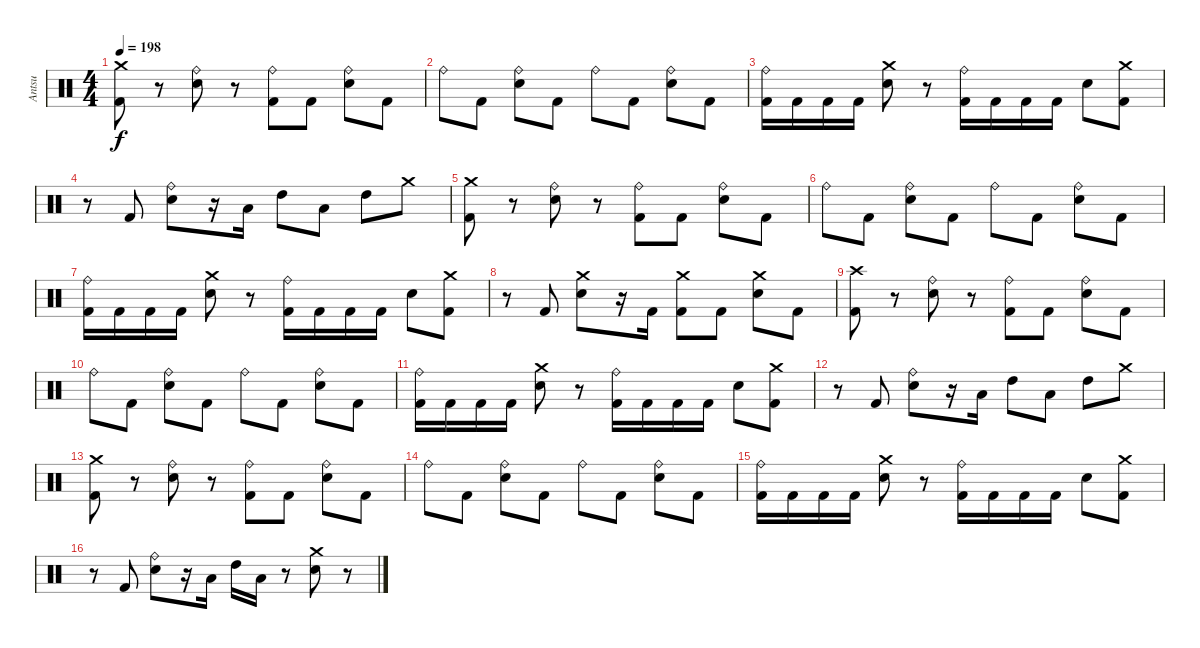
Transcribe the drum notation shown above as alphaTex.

\track ("Antsu" "Antsu") {instrument percussion}
\staff {score}
\articulation defaults
\ts (4 4)
\tempo 198
\clef neutral
\ks c
("Crash medium (hit)" "Kick (hit) 2").8{dy f} r.8 ("Ride (bell)" "Snare (hit) 2").8 r.8 ("Ride (bell)" "Kick (hit) 2").8 "Kick (hit) 2".8 ("Ride (bell)" "Snare (hit) 2").8 "Kick (hit) 2".8 |
"Ride (bell)".8 "Kick (hit) 2".8 ("Ride (bell)" "Snare (hit) 2").8 "Kick (hit) 2".8 "Ride (bell)".8 "Kick (hit) 2".8 ("Ride (bell)" "Snare (hit) 2").8 "Kick (hit) 2".8 |
("Ride (bell)" "Kick (hit) 2").16 "Kick (hit) 2".16 "Kick (hit) 2".16 "Kick (hit) 2".16 ("Crash medium (hit)" "Snare (hit) 2").8 r.8 ("Ride (bell)" "Kick (hit) 2").16 "Kick (hit) 2".16 "Kick (hit) 2".16 "Kick (hit) 2".16 "Snare (hit) 2".8 ("Crash medium (hit)" "Kick (hit) 2").8 |
r.8 "Kick (hit) 2".8 ("Ride (bell)" "Snare (hit) 2").8 r.16 "Low Tom (hit)".16 "High Tom (hit)".8 "Low Tom (hit)".8 "High Tom (hit)".8 "Crash medium (hit)".8 |
("Crash medium (hit)" "Kick (hit) 2").8 r.8 ("Ride (bell)" "Snare (hit) 2").8 r.8 ("Ride (bell)" "Kick (hit) 2").8 "Kick (hit) 2".8 ("Ride (bell)" "Snare (hit) 2").8 "Kick (hit) 2".8 |
"Ride (bell)".8 "Kick (hit) 2".8 ("Ride (bell)" "Snare (hit) 2").8 "Kick (hit) 2".8 "Ride (bell)".8 "Kick (hit) 2".8 ("Ride (bell)" "Snare (hit) 2").8 "Kick (hit) 2".8 |
("Ride (bell)" "Kick (hit) 2").16 "Kick (hit) 2".16 "Kick (hit) 2".16 "Kick (hit) 2".16 ("Crash medium (hit)" "Snare (hit) 2").8 r.8 ("Ride (bell)" "Kick (hit) 2").16 "Kick (hit) 2".16 "Kick (hit) 2".16 "Kick (hit) 2".16 "Snare (hit) 2".8 ("Crash medium (hit)" "Kick (hit) 2").8 |
r.8 "Kick (hit) 2".8 ("Crash medium (hit)" "Snare (hit) 2").8 r.16 "Kick (hit) 2".16 ("Crash medium (hit)" "Kick (hit) 2").8 "Kick (hit) 2".8 ("Crash medium (hit)" "Snare (hit) 2").8 "Kick (hit) 2".8 |
("Crash high (hit)" "Kick (hit) 2").8 r.8 ("Ride (bell)" "Snare (hit) 2").8 r.8 ("Ride (bell)" "Kick (hit) 2").8 "Kick (hit) 2".8 ("Ride (bell)" "Snare (hit) 2").8 "Kick (hit) 2".8 |
"Ride (bell)".8 "Kick (hit) 2".8 ("Ride (bell)" "Snare (hit) 2").8 "Kick (hit) 2".8 "Ride (bell)".8 "Kick (hit) 2".8 ("Ride (bell)" "Snare (hit) 2").8 "Kick (hit) 2".8 |
("Ride (bell)" "Kick (hit) 2").16 "Kick (hit) 2".16 "Kick (hit) 2".16 "Kick (hit) 2".16 ("Crash medium (hit)" "Snare (hit) 2").8 r.8 ("Ride (bell)" "Kick (hit) 2").16 "Kick (hit) 2".16 "Kick (hit) 2".16 "Kick (hit) 2".16 "Snare (hit) 2".8 ("Crash medium (hit)" "Kick (hit) 2").8 |
r.8 "Kick (hit) 2".8 ("Ride (bell)" "Snare (hit) 2").8 r.16 "Low Tom (hit)".16 "High Tom (hit)".8 "Low Tom (hit)".8 "High Tom (hit)".8 "Crash medium (hit)".8 |
("Crash medium (hit)" "Kick (hit) 2").8 r.8 ("Ride (bell)" "Snare (hit) 2").8 r.8 ("Ride (bell)" "Kick (hit) 2").8 "Kick (hit) 2".8 ("Ride (bell)" "Snare (hit) 2").8 "Kick (hit) 2".8 |
"Ride (bell)".8 "Kick (hit) 2".8 ("Ride (bell)" "Snare (hit) 2").8 "Kick (hit) 2".8 "Ride (bell)".8 "Kick (hit) 2".8 ("Ride (bell)" "Snare (hit) 2").8 "Kick (hit) 2".8 |
("Ride (bell)" "Kick (hit) 2").16 "Kick (hit) 2".16 "Kick (hit) 2".16 "Kick (hit) 2".16 ("Crash medium (hit)" "Snare (hit) 2").8 r.8 ("Ride (bell)" "Kick (hit) 2").16 "Kick (hit) 2".16 "Kick (hit) 2".16 "Kick (hit) 2".16 "Snare (hit) 2".8 ("Crash medium (hit)" "Kick (hit) 2").8 |
r.8 "Kick (hit) 2".8 ("Ride (bell)" "Snare (hit) 2").8 r.16 "Low Tom (hit)".16 "High Tom (hit)".16 "Low Tom (hit)".16 r.8 ("Crash medium (hit)" "Snare (hit) 2").8 r.8
